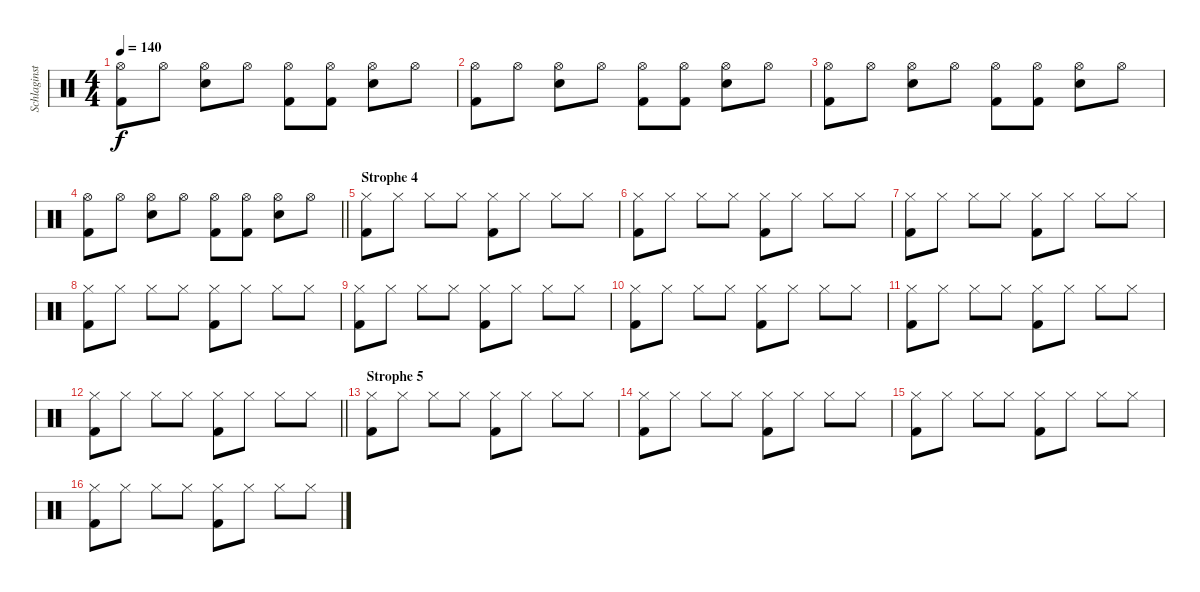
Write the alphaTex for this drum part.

\track ("Schlaginstrumente - Auswahl" "Schlaginst") {instrument percussion}
\staff {score}
\articulation defaults
\ts (4 4)
\tempo 140
\clef neutral
\ks c
("Hi-Hat (open)" "Kick (hit) 2").8{dy f} "Hi-Hat (open)".8 ("Hi-Hat (open)" "Snare (hit) 2").8 "Hi-Hat (open)".8 ("Hi-Hat (open)" "Kick (hit) 2").8 ("Hi-Hat (open)" "Kick (hit) 2").8 ("Hi-Hat (open)" "Snare (hit) 2").8 "Hi-Hat (open)".8 |
("Hi-Hat (open)" "Kick (hit) 2").8 "Hi-Hat (open)".8 ("Hi-Hat (open)" "Snare (hit) 2").8 "Hi-Hat (open)".8 ("Hi-Hat (open)" "Kick (hit) 2").8 ("Hi-Hat (open)" "Kick (hit) 2").8 ("Hi-Hat (open)" "Snare (hit) 2").8 "Hi-Hat (open)".8 |
("Hi-Hat (open)" "Kick (hit) 2").8 "Hi-Hat (open)".8 ("Hi-Hat (open)" "Snare (hit) 2").8 "Hi-Hat (open)".8 ("Hi-Hat (open)" "Kick (hit) 2").8 ("Hi-Hat (open)" "Kick (hit) 2").8 ("Hi-Hat (open)" "Snare (hit) 2").8 "Hi-Hat (open)".8 |
\barLineRight lightlight
("Hi-Hat (open)" "Kick (hit) 2").8 "Hi-Hat (open)".8 ("Hi-Hat (open)" "Snare (hit) 2").8 "Hi-Hat (open)".8 ("Hi-Hat (open)" "Kick (hit) 2").8 ("Hi-Hat (open)" "Kick (hit) 2").8 ("Hi-Hat (open)" "Snare (hit) 2").8 "Hi-Hat (open)".8 |
\section ("" "Strophe 4")
("Hi-Hat (closed)" "Kick (hit) 2").8 "Hi-Hat (closed)".8 "Hi-Hat (closed)".8 "Hi-Hat (closed)".8 ("Hi-Hat (closed)" "Kick (hit) 2").8 "Hi-Hat (closed)".8 "Hi-Hat (closed)".8 "Hi-Hat (closed)".8 |
("Hi-Hat (closed)" "Kick (hit) 2").8 "Hi-Hat (closed)".8 "Hi-Hat (closed)".8 "Hi-Hat (closed)".8 ("Hi-Hat (closed)" "Kick (hit) 2").8 "Hi-Hat (closed)".8 "Hi-Hat (closed)".8 "Hi-Hat (closed)".8 |
("Hi-Hat (closed)" "Kick (hit) 2").8 "Hi-Hat (closed)".8 "Hi-Hat (closed)".8 "Hi-Hat (closed)".8 ("Hi-Hat (closed)" "Kick (hit) 2").8 "Hi-Hat (closed)".8 "Hi-Hat (closed)".8 "Hi-Hat (closed)".8 |
("Hi-Hat (closed)" "Kick (hit) 2").8 "Hi-Hat (closed)".8 "Hi-Hat (closed)".8 "Hi-Hat (closed)".8 ("Hi-Hat (closed)" "Kick (hit) 2").8 "Hi-Hat (closed)".8 "Hi-Hat (closed)".8 "Hi-Hat (closed)".8 |
("Hi-Hat (closed)" "Kick (hit) 2").8 "Hi-Hat (closed)".8 "Hi-Hat (closed)".8 "Hi-Hat (closed)".8 ("Hi-Hat (closed)" "Kick (hit) 2").8 "Hi-Hat (closed)".8 "Hi-Hat (closed)".8 "Hi-Hat (closed)".8 |
("Hi-Hat (closed)" "Kick (hit) 2").8 "Hi-Hat (closed)".8 "Hi-Hat (closed)".8 "Hi-Hat (closed)".8 ("Hi-Hat (closed)" "Kick (hit) 2").8 "Hi-Hat (closed)".8 "Hi-Hat (closed)".8 "Hi-Hat (closed)".8 |
("Hi-Hat (closed)" "Kick (hit) 2").8 "Hi-Hat (closed)".8 "Hi-Hat (closed)".8 "Hi-Hat (closed)".8 ("Hi-Hat (closed)" "Kick (hit) 2").8 "Hi-Hat (closed)".8 "Hi-Hat (closed)".8 "Hi-Hat (closed)".8 |
\barLineRight lightlight
("Hi-Hat (closed)" "Kick (hit) 2").8 "Hi-Hat (closed)".8 "Hi-Hat (closed)".8 "Hi-Hat (closed)".8 ("Hi-Hat (closed)" "Kick (hit) 2").8 "Hi-Hat (closed)".8 "Hi-Hat (closed)".8 "Hi-Hat (closed)".8 |
\section ("" "Strophe 5")
("Hi-Hat (closed)" "Kick (hit) 2").8 "Hi-Hat (closed)".8 "Hi-Hat (closed)".8 "Hi-Hat (closed)".8 ("Hi-Hat (closed)" "Kick (hit) 2").8 "Hi-Hat (closed)".8 "Hi-Hat (closed)".8 "Hi-Hat (closed)".8 |
("Hi-Hat (closed)" "Kick (hit) 2").8 "Hi-Hat (closed)".8 "Hi-Hat (closed)".8 "Hi-Hat (closed)".8 ("Hi-Hat (closed)" "Kick (hit) 2").8 "Hi-Hat (closed)".8 "Hi-Hat (closed)".8 "Hi-Hat (closed)".8 |
("Hi-Hat (closed)" "Kick (hit) 2").8 "Hi-Hat (closed)".8 "Hi-Hat (closed)".8 "Hi-Hat (closed)".8 ("Hi-Hat (closed)" "Kick (hit) 2").8 "Hi-Hat (closed)".8 "Hi-Hat (closed)".8 "Hi-Hat (closed)".8 |
("Hi-Hat (closed)" "Kick (hit) 2").8 "Hi-Hat (closed)".8 "Hi-Hat (closed)".8 "Hi-Hat (closed)".8 ("Hi-Hat (closed)" "Kick (hit) 2").8 "Hi-Hat (closed)".8 "Hi-Hat (closed)".8 "Hi-Hat (closed)".8
